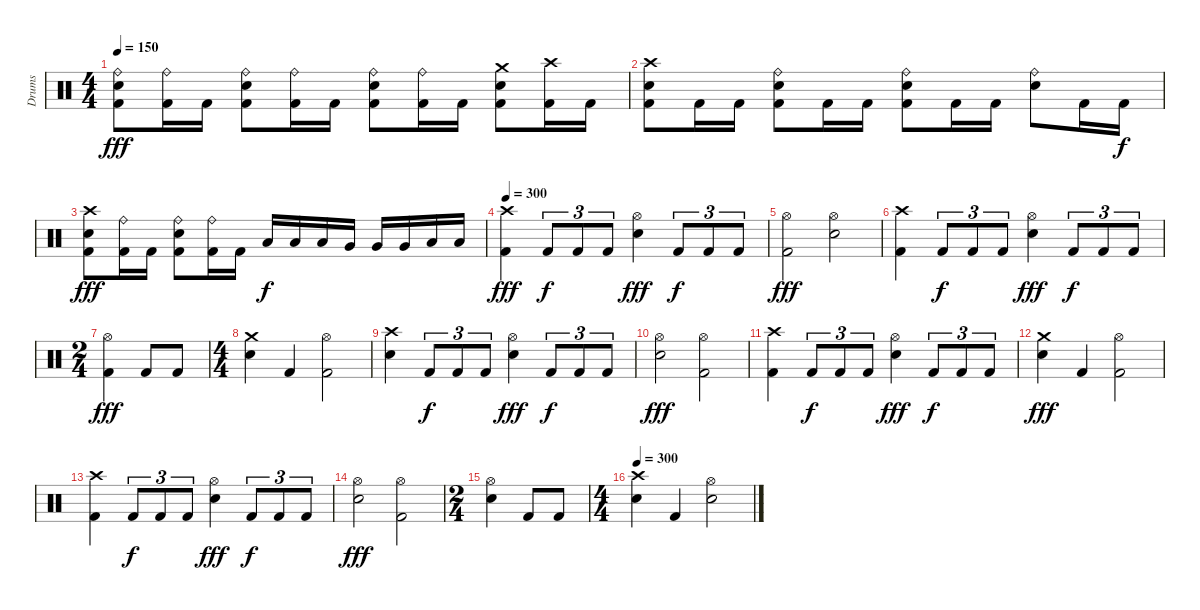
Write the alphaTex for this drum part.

\track ("Drums" "Drums") {instrument percussion}
\staff {score}
\articulation defaults
\ts (4 4)
\tempo 150
\clef neutral
\ks c
("Kick (hit) 2" "Snare (hit) 2" "Ride (bell)").8{dy fff} ("Kick (hit) 2" "Ride (bell)").16 "Kick (hit) 2".16 ("Kick (hit) 2" "Snare (hit) 2" "Ride (bell)").8 ("Kick (hit) 2" "Ride (bell)").16 "Kick (hit) 2".16 ("Kick (hit) 2" "Snare (hit) 2" "Ride (bell)").8 ("Kick (hit) 2" "Ride (bell)").16 "Kick (hit) 2".16 ("Kick (hit) 2" "Snare (hit) 2" "Crash medium (hit)").8 ("Kick (hit) 2" "Crash high (hit)").16 "Kick (hit) 2".16 |
("Kick (hit) 2" "Snare (hit) 2" "Crash high (hit)").8 "Kick (hit) 2".16 "Kick (hit) 2".16 ("Kick (hit) 2" "Snare (hit) 2" "Ride (bell)").8 "Kick (hit) 2".16 "Kick (hit) 2".16 ("Kick (hit) 2" "Snare (hit) 2" "Ride (bell)").8 "Kick (hit) 2".16 "Kick (hit) 2".16 ("Snare (hit) 2" "Ride (bell)").8 "Kick (hit) 2".16 "Kick (hit) 2".16{dy f} |
("Kick (hit) 2" "Snare (hit) 2" "Crash high (hit)").8{dy fff} ("Kick (hit) 2" "Ride (bell)").16 "Kick (hit) 2".16 ("Kick (hit) 2" "Snare (hit) 2" "Ride (bell)").8 ("Kick (hit) 2" "Ride (bell)").16 "Kick (hit) 2".16 "Low Tom (hit)".16{dy f} "Low Tom (hit)".16 "Low Tom (hit)".16 "Very Low Tom (hit)".16 "Very Low Tom (hit)".16 "Very Low Tom (hit)".16 "Low Floor Tom (hit)".16 "Low Floor Tom (hit)".16 |
\tempo 300
("Kick (hit) 2" "Crash high (hit)").4{dy fff} "Kick (hit) 2".8{tu (3 2) dy f} "Kick (hit) 2".8{tu (3 2)} "Kick (hit) 2".8{tu (3 2)} ("Snare (hit) 2" "Hi-Hat (open)").4{dy fff} "Kick (hit) 2".8{tu (3 2) dy f} "Kick (hit) 2".8{tu (3 2)} "Kick (hit) 2".8{tu (3 2)} |
("Kick (hit) 2" "Hi-Hat (open)").2{dy fff} ("Snare (hit) 2" "Hi-Hat (open)").2 |
("Kick (hit) 2" "Crash high (hit)").4 "Kick (hit) 2".8{tu (3 2) dy f} "Kick (hit) 2".8{tu (3 2)} "Kick (hit) 2".8{tu (3 2)} ("Snare (hit) 2" "Hi-Hat (open)").4{dy fff} "Kick (hit) 2".8{tu (3 2) dy f} "Kick (hit) 2".8{tu (3 2)} "Kick (hit) 2".8{tu (3 2)} |
\ts (2 4)
("Kick (hit) 2" "Hi-Hat (open)").4{dy fff} "Kick (hit) 2".8 "Kick (hit) 2".8 |
\ts (4 4)
("Snare (hit) 2" "Crash medium (hit)").4 "Kick (hit) 2".4 ("Kick (hit) 2" "Hi-Hat (open)").2 |
("Snare (hit) 2" "Crash high (hit)").4 "Kick (hit) 2".8{tu (3 2) dy f} "Kick (hit) 2".8{tu (3 2)} "Kick (hit) 2".8{tu (3 2)} ("Snare (hit) 2" "Hi-Hat (open)").4{dy fff} "Kick (hit) 2".8{tu (3 2) dy f} "Kick (hit) 2".8{tu (3 2)} "Kick (hit) 2".8{tu (3 2)} |
("Snare (hit) 2" "Hi-Hat (open)").2{dy fff} ("Kick (hit) 2" "Hi-Hat (open)").2 |
("Kick (hit) 2" "Crash high (hit)").4 "Kick (hit) 2".8{tu (3 2) dy f} "Kick (hit) 2".8{tu (3 2)} "Kick (hit) 2".8{tu (3 2)} ("Snare (hit) 2" "Hi-Hat (open)").4{dy fff} "Kick (hit) 2".8{tu (3 2) dy f} "Kick (hit) 2".8{tu (3 2)} "Kick (hit) 2".8{tu (3 2)} |
("Snare (hit) 2" "Crash medium (hit)").4{dy fff} "Kick (hit) 2".4 ("Kick (hit) 2" "Hi-Hat (open)").2 |
("Kick (hit) 2" "Crash high (hit)").4 "Kick (hit) 2".8{tu (3 2) dy f} "Kick (hit) 2".8{tu (3 2)} "Kick (hit) 2".8{tu (3 2)} ("Snare (hit) 2" "Hi-Hat (open)").4{dy fff} "Kick (hit) 2".8{tu (3 2) dy f} "Kick (hit) 2".8{tu (3 2)} "Kick (hit) 2".8{tu (3 2)} |
("Snare (hit) 2" "Hi-Hat (open)").2{dy fff} ("Kick (hit) 2" "Hi-Hat (open)").2 |
\ts (2 4)
("Snare (hit) 2" "Hi-Hat (open)").4 "Kick (hit) 2".8 "Kick (hit) 2".8 |
\ts (4 4)
\tempo 300
("Snare (hit) 2" "Crash high (hit)").4 "Kick (hit) 2".4 ("Snare (hit) 2" "Hi-Hat (open)").2
